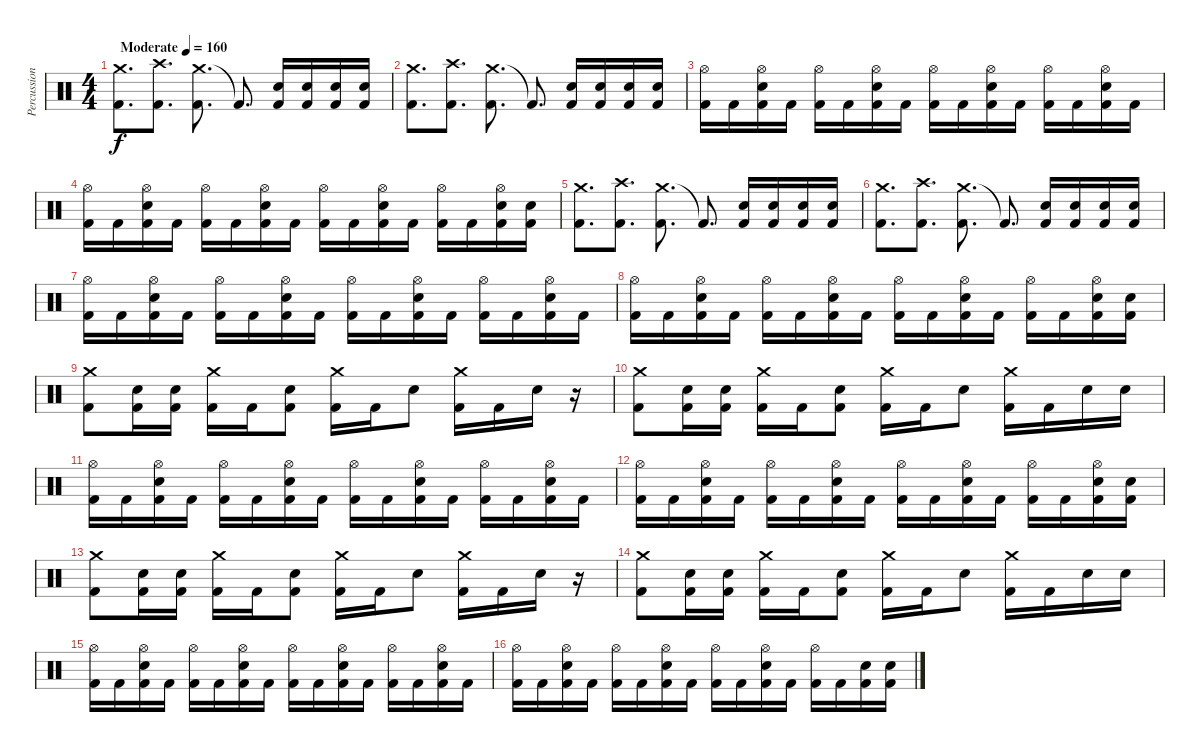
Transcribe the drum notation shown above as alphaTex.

\track ("Percussion" "Percussion") {instrument percussion}
\staff {score}
\articulation defaults
\ts (4 4)
\tempo (160 "Moderate")
\clef neutral
\ks c
("Crash medium (hit)" "Kick (hit) 2").8{d dy f} ("Crash high (hit)" "Kick (hit) 2").8{d} ("Crash medium (hit)" "Kick (hit) 2").8{d} "Kick (hit) 2"{t}.8{d} ("Electric Snare (hit)" "Kick (hit) 2").16 ("Electric Snare (hit)" "Kick (hit) 2").16 ("Electric Snare (hit)" "Kick (hit) 2").16 ("Electric Snare (hit)" "Kick (hit) 2").16 |
("Crash medium (hit)" "Kick (hit) 2").8{d} ("Crash high (hit)" "Kick (hit) 2").8{d} ("Crash medium (hit)" "Kick (hit) 2").8{d} "Kick (hit) 2"{t}.8{d} ("Electric Snare (hit)" "Kick (hit) 2").16 ("Electric Snare (hit)" "Kick (hit) 2").16 ("Electric Snare (hit)" "Kick (hit) 2").16 ("Electric Snare (hit)" "Kick (hit) 2").16 |
("Hi-Hat (open)" "Kick (hit) 2").16 "Kick (hit) 2".16 ("Hi-Hat (open)" "Electric Snare (hit)" "Kick (hit) 2").16 "Kick (hit) 2".16 ("Hi-Hat (open)" "Kick (hit) 2").16 "Kick (hit) 2".16 ("Hi-Hat (open)" "Electric Snare (hit)" "Kick (hit) 2").16 "Kick (hit) 2".16 ("Hi-Hat (open)" "Kick (hit) 2").16 "Kick (hit) 2".16 ("Hi-Hat (open)" "Electric Snare (hit)" "Kick (hit) 2").16 "Kick (hit) 2".16 ("Hi-Hat (open)" "Kick (hit) 2").16 "Kick (hit) 2".16 ("Hi-Hat (open)" "Electric Snare (hit)" "Kick (hit) 2").16 "Kick (hit) 2".16 |
("Hi-Hat (open)" "Kick (hit) 2").16 "Kick (hit) 2".16 ("Hi-Hat (open)" "Electric Snare (hit)" "Kick (hit) 2").16 "Kick (hit) 2".16 ("Hi-Hat (open)" "Kick (hit) 2").16 "Kick (hit) 2".16 ("Hi-Hat (open)" "Electric Snare (hit)" "Kick (hit) 2").16 "Kick (hit) 2".16 ("Hi-Hat (open)" "Kick (hit) 2").16 "Kick (hit) 2".16 ("Hi-Hat (open)" "Electric Snare (hit)" "Kick (hit) 2").16 "Kick (hit) 2".16 ("Hi-Hat (open)" "Kick (hit) 2").16 "Kick (hit) 2".16 ("Hi-Hat (open)" "Electric Snare (hit)" "Kick (hit) 2").16 ("Electric Snare (hit)" "Kick (hit) 2").16 |
("Crash medium (hit)" "Kick (hit) 2").8{d} ("Crash high (hit)" "Kick (hit) 2").8{d} ("Crash medium (hit)" "Kick (hit) 2").8{d} "Kick (hit) 2"{t}.8{d} ("Electric Snare (hit)" "Kick (hit) 2").16 ("Electric Snare (hit)" "Kick (hit) 2").16 ("Electric Snare (hit)" "Kick (hit) 2").16 ("Electric Snare (hit)" "Kick (hit) 2").16 |
("Crash medium (hit)" "Kick (hit) 2").8{d} ("Crash high (hit)" "Kick (hit) 2").8{d} ("Crash medium (hit)" "Kick (hit) 2").8{d} "Kick (hit) 2"{t}.8{d} ("Electric Snare (hit)" "Kick (hit) 2").16 ("Electric Snare (hit)" "Kick (hit) 2").16 ("Electric Snare (hit)" "Kick (hit) 2").16 ("Electric Snare (hit)" "Kick (hit) 2").16 |
("Hi-Hat (open)" "Kick (hit) 2").16 "Kick (hit) 2".16 ("Hi-Hat (open)" "Electric Snare (hit)" "Kick (hit) 2").16 "Kick (hit) 2".16 ("Hi-Hat (open)" "Kick (hit) 2").16 "Kick (hit) 2".16 ("Hi-Hat (open)" "Electric Snare (hit)" "Kick (hit) 2").16 "Kick (hit) 2".16 ("Hi-Hat (open)" "Kick (hit) 2").16 "Kick (hit) 2".16 ("Hi-Hat (open)" "Electric Snare (hit)" "Kick (hit) 2").16 "Kick (hit) 2".16 ("Hi-Hat (open)" "Kick (hit) 2").16 "Kick (hit) 2".16 ("Hi-Hat (open)" "Electric Snare (hit)" "Kick (hit) 2").16 "Kick (hit) 2".16 |
("Hi-Hat (open)" "Kick (hit) 2").16 "Kick (hit) 2".16 ("Hi-Hat (open)" "Electric Snare (hit)" "Kick (hit) 2").16 "Kick (hit) 2".16 ("Hi-Hat (open)" "Kick (hit) 2").16 "Kick (hit) 2".16 ("Hi-Hat (open)" "Electric Snare (hit)" "Kick (hit) 2").16 "Kick (hit) 2".16 ("Hi-Hat (open)" "Kick (hit) 2").16 "Kick (hit) 2".16 ("Hi-Hat (open)" "Electric Snare (hit)" "Kick (hit) 2").16 "Kick (hit) 2".16 ("Hi-Hat (open)" "Kick (hit) 2").16 "Kick (hit) 2".16 ("Hi-Hat (open)" "Electric Snare (hit)" "Kick (hit) 2").16 ("Electric Snare (hit)" "Kick (hit) 2").16 |
("Crash medium (hit)" "Kick (hit) 2").8 ("Electric Snare (hit)" "Kick (hit) 2").16 ("Electric Snare (hit)" "Kick (hit) 2").16 ("Crash medium (hit)" "Kick (hit) 2").16 "Kick (hit) 2".16 ("Electric Snare (hit)" "Kick (hit) 2").8 ("Crash medium (hit)" "Kick (hit) 2").16 "Kick (hit) 2".16 "Electric Snare (hit)".8 ("Crash medium (hit)" "Kick (hit) 2").16 "Kick (hit) 2".16 "Electric Snare (hit)".16 r.16 |
("Crash medium (hit)" "Kick (hit) 2").8 ("Electric Snare (hit)" "Kick (hit) 2").16 ("Electric Snare (hit)" "Kick (hit) 2").16 ("Crash medium (hit)" "Kick (hit) 2").16 "Kick (hit) 2".16 ("Electric Snare (hit)" "Kick (hit) 2").8 ("Crash medium (hit)" "Kick (hit) 2").16 "Kick (hit) 2".16 "Electric Snare (hit)".8 ("Crash medium (hit)" "Kick (hit) 2").16 "Kick (hit) 2".16 "Electric Snare (hit)".16 "Electric Snare (hit)".16 |
("Hi-Hat (open)" "Kick (hit) 2").16 "Kick (hit) 2".16 ("Hi-Hat (open)" "Electric Snare (hit)" "Kick (hit) 2").16 "Kick (hit) 2".16 ("Hi-Hat (open)" "Kick (hit) 2").16 "Kick (hit) 2".16 ("Hi-Hat (open)" "Electric Snare (hit)" "Kick (hit) 2").16 "Kick (hit) 2".16 ("Hi-Hat (open)" "Kick (hit) 2").16 "Kick (hit) 2".16 ("Hi-Hat (open)" "Electric Snare (hit)" "Kick (hit) 2").16 "Kick (hit) 2".16 ("Hi-Hat (open)" "Kick (hit) 2").16 "Kick (hit) 2".16 ("Hi-Hat (open)" "Electric Snare (hit)" "Kick (hit) 2").16 "Kick (hit) 2".16 |
("Hi-Hat (open)" "Kick (hit) 2").16 "Kick (hit) 2".16 ("Hi-Hat (open)" "Electric Snare (hit)" "Kick (hit) 2").16 "Kick (hit) 2".16 ("Hi-Hat (open)" "Kick (hit) 2").16 "Kick (hit) 2".16 ("Hi-Hat (open)" "Electric Snare (hit)" "Kick (hit) 2").16 "Kick (hit) 2".16 ("Hi-Hat (open)" "Kick (hit) 2").16 "Kick (hit) 2".16 ("Hi-Hat (open)" "Electric Snare (hit)" "Kick (hit) 2").16 "Kick (hit) 2".16 ("Hi-Hat (open)" "Kick (hit) 2").16 "Kick (hit) 2".16 ("Hi-Hat (open)" "Electric Snare (hit)" "Kick (hit) 2").16 ("Electric Snare (hit)" "Kick (hit) 2").16 |
("Crash medium (hit)" "Kick (hit) 2").8 ("Electric Snare (hit)" "Kick (hit) 2").16 ("Electric Snare (hit)" "Kick (hit) 2").16 ("Crash medium (hit)" "Kick (hit) 2").16 "Kick (hit) 2".16 ("Electric Snare (hit)" "Kick (hit) 2").8 ("Crash medium (hit)" "Kick (hit) 2").16 "Kick (hit) 2".16 "Electric Snare (hit)".8 ("Crash medium (hit)" "Kick (hit) 2").16 "Kick (hit) 2".16 "Electric Snare (hit)".16 r.16 |
("Crash medium (hit)" "Kick (hit) 2").8 ("Electric Snare (hit)" "Kick (hit) 2").16 ("Electric Snare (hit)" "Kick (hit) 2").16 ("Crash medium (hit)" "Kick (hit) 2").16 "Kick (hit) 2".16 ("Electric Snare (hit)" "Kick (hit) 2").8 ("Crash medium (hit)" "Kick (hit) 2").16 "Kick (hit) 2".16 "Electric Snare (hit)".8 ("Crash medium (hit)" "Kick (hit) 2").16 "Kick (hit) 2".16 "Electric Snare (hit)".16 "Electric Snare (hit)".16 |
("Hi-Hat (open)" "Kick (hit) 2").16 "Kick (hit) 2".16 ("Hi-Hat (open)" "Electric Snare (hit)" "Kick (hit) 2").16 "Kick (hit) 2".16 ("Hi-Hat (open)" "Kick (hit) 2").16 "Kick (hit) 2".16 ("Hi-Hat (open)" "Electric Snare (hit)" "Kick (hit) 2").16 "Kick (hit) 2".16 ("Hi-Hat (open)" "Kick (hit) 2").16 "Kick (hit) 2".16 ("Hi-Hat (open)" "Electric Snare (hit)" "Kick (hit) 2").16 "Kick (hit) 2".16 ("Hi-Hat (open)" "Kick (hit) 2").16 "Kick (hit) 2".16 ("Hi-Hat (open)" "Electric Snare (hit)" "Kick (hit) 2").16 "Kick (hit) 2".16 |
("Hi-Hat (open)" "Kick (hit) 2").16 "Kick (hit) 2".16 ("Hi-Hat (open)" "Electric Snare (hit)" "Kick (hit) 2").16 "Kick (hit) 2".16 ("Hi-Hat (open)" "Kick (hit) 2").16 "Kick (hit) 2".16 ("Hi-Hat (open)" "Electric Snare (hit)" "Kick (hit) 2").16 "Kick (hit) 2".16 ("Hi-Hat (open)" "Kick (hit) 2").16 "Kick (hit) 2".16 ("Hi-Hat (open)" "Electric Snare (hit)" "Kick (hit) 2").16 "Kick (hit) 2".16 ("Hi-Hat (open)" "Kick (hit) 2").16 "Kick (hit) 2".16 ("Electric Snare (hit)" "Kick (hit) 2").16 ("Electric Snare (hit)" "Kick (hit) 2").16
